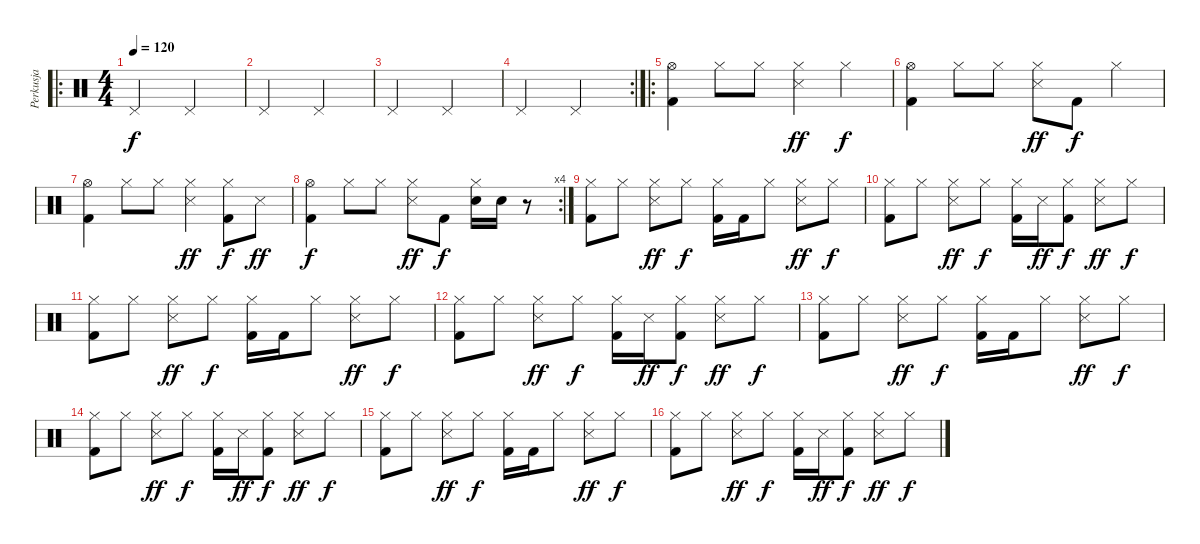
\track ("Perkusja" "Perkusja") {instrument percussion}
\staff {score}
\articulation defaults
\ro
\ts (4 4)
\tempo 120
\clef neutral
\ks c "Pedal Hi-Hat (hit)".2{dy f} "Pedal Hi-Hat (hit)".2
|
"Pedal Hi-Hat (hit)".2 "Pedal Hi-Hat (hit)".2 |
"Pedal Hi-Hat (hit)".2 "Pedal Hi-Hat (hit)".2 |
\rc 2 "Pedal Hi-Hat (hit)".2 "Pedal Hi-Hat (hit)".2
|
\ro
("Hi-Hat (open)" "Kick (hit) 2").4 "Hi-Hat (closed)".8 "Hi-Hat (closed)".8 ("Hi-Hat (closed)" "Snare (side stick) 3").4{dy ff} "Hi-Hat (closed)".4{dy f} |
("Hi-Hat (open)" "Kick (hit) 2").4 "Hi-Hat (closed)".8 "Hi-Hat (closed)".8 ("Hi-Hat (closed)" "Snare (side stick) 3").8{dy ff} "Kick (hit) 2".8{dy f} "Hi-Hat (closed)".4 |
("Hi-Hat (open)" "Kick (hit) 2").4 "Hi-Hat (closed)".8 "Hi-Hat (closed)".8 ("Hi-Hat (closed)" "Snare (side stick) 3").4{dy ff} ("Hi-Hat (closed)" "Kick (hit) 2").8{dy f} "Snare (side stick) 3".8{dy ff} |
\rc 4
("Hi-Hat (open)" "Kick (hit) 2").4{dy f} "Hi-Hat (closed)".8 "Hi-Hat (closed)".8 ("Hi-Hat (closed)" "Snare (side stick) 3").8{dy ff} "Kick (hit) 2".8{dy f} ("Hi-Hat (closed)" "Snare (hit) 2").16 "Snare (hit) 2".16 r.8 |
("Hi-Hat (closed)" "Kick (hit) 2").8 "Hi-Hat (closed)".8 ("Hi-Hat (closed)" "Snare (side stick) 3").8{dy ff} "Hi-Hat (closed)".8{dy f} ("Hi-Hat (closed)" "Kick (hit) 2").16 "Kick (hit) 2".16 "Hi-Hat (closed)".8 ("Hi-Hat (closed)" "Snare (side stick) 3").8{dy ff} "Hi-Hat (closed)".8{dy f} |
("Hi-Hat (closed)" "Kick (hit) 2").8 "Hi-Hat (closed)".8 ("Hi-Hat (closed)" "Snare (side stick) 3").8{dy ff} "Hi-Hat (closed)".8{dy f} ("Hi-Hat (closed)" "Kick (hit) 2").16 "Snare (side stick) 3".16{dy ff} ("Hi-Hat (closed)" "Kick (hit) 2").8{dy f} ("Hi-Hat (closed)" "Snare (side stick) 3").8{dy ff} "Hi-Hat (closed)".8{dy f} |
("Hi-Hat (closed)" "Kick (hit) 2").8 "Hi-Hat (closed)".8 ("Hi-Hat (closed)" "Snare (side stick) 3").8{dy ff} "Hi-Hat (closed)".8{dy f} ("Hi-Hat (closed)" "Kick (hit) 2").16 "Kick (hit) 2".16 "Hi-Hat (closed)".8 ("Hi-Hat (closed)" "Snare (side stick) 3").8{dy ff} "Hi-Hat (closed)".8{dy f} |
("Hi-Hat (closed)" "Kick (hit) 2").8 "Hi-Hat (closed)".8 ("Hi-Hat (closed)" "Snare (side stick) 3").8{dy ff} "Hi-Hat (closed)".8{dy f} ("Hi-Hat (closed)" "Kick (hit) 2").16 "Snare (side stick) 3".16{dy ff} ("Hi-Hat (closed)" "Kick (hit) 2").8{dy f} ("Hi-Hat (closed)" "Snare (side stick) 3").8{dy ff} "Hi-Hat (closed)".8{dy f} |
("Hi-Hat (closed)" "Kick (hit) 2").8 "Hi-Hat (closed)".8 ("Hi-Hat (closed)" "Snare (side stick) 3").8{dy ff} "Hi-Hat (closed)".8{dy f} ("Hi-Hat (closed)" "Kick (hit) 2").16 "Kick (hit) 2".16 "Hi-Hat (closed)".8 ("Hi-Hat (closed)" "Snare (side stick) 3").8{dy ff} "Hi-Hat (closed)".8{dy f} |
("Hi-Hat (closed)" "Kick (hit) 2").8 "Hi-Hat (closed)".8 ("Hi-Hat (closed)" "Snare (side stick) 3").8{dy ff} "Hi-Hat (closed)".8{dy f} ("Hi-Hat (closed)" "Kick (hit) 2").16 "Snare (side stick) 3".16{dy ff} ("Hi-Hat (closed)" "Kick (hit) 2").8{dy f} ("Hi-Hat (closed)" "Snare (side stick) 3").8{dy ff} "Hi-Hat (closed)".8{dy f} |
("Hi-Hat (closed)" "Kick (hit) 2").8 "Hi-Hat (closed)".8 ("Hi-Hat (closed)" "Snare (side stick) 3").8{dy ff} "Hi-Hat (closed)".8{dy f} ("Hi-Hat (closed)" "Kick (hit) 2").16 "Kick (hit) 2".16 "Hi-Hat (closed)".8 ("Hi-Hat (closed)" "Snare (side stick) 3").8{dy ff} "Hi-Hat (closed)".8{dy f} |
("Hi-Hat (closed)" "Kick (hit) 2").8 "Hi-Hat (closed)".8 ("Hi-Hat (closed)" "Snare (side stick) 3").8{dy ff} "Hi-Hat (closed)".8{dy f} ("Hi-Hat (closed)" "Kick (hit) 2").16 "Snare (side stick) 3".16{dy ff} ("Hi-Hat (closed)" "Kick (hit) 2").8{dy f} ("Hi-Hat (closed)" "Snare (side stick) 3").8{dy ff} "Hi-Hat (closed)".8{dy f}
